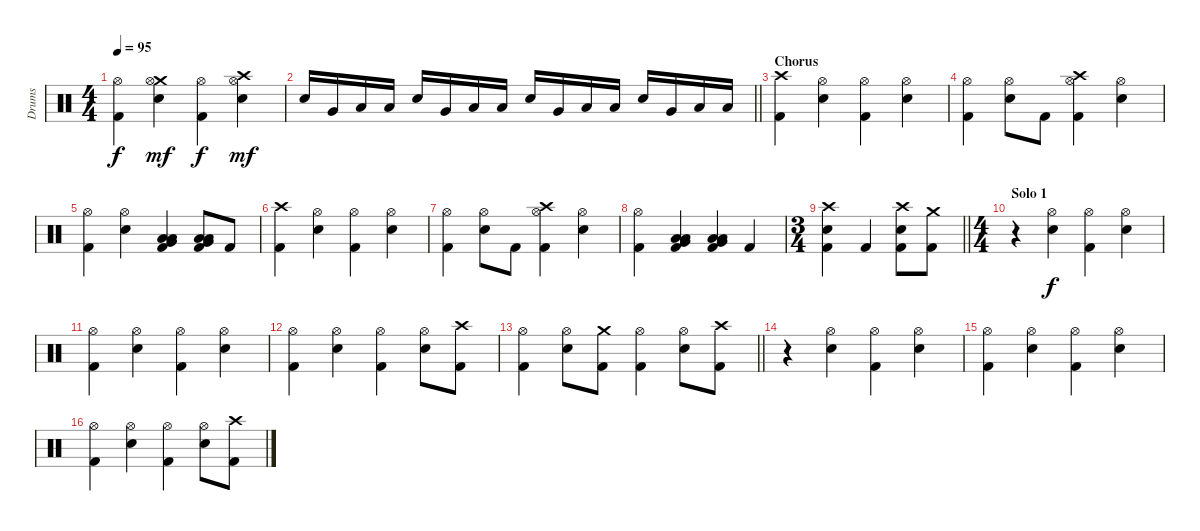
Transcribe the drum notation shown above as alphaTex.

\track ("Drums" "Drums") {instrument percussion}
\staff {score}
\articulation defaults
\ts (4 4)
\tempo 95
\clef neutral
\ks c
("Hi-Hat (open)" "Kick (hit) 2").4{dy f} ("Crash medium (hit)" "Hi-Hat (open)" "Electric Snare (hit)").4{dy mf} ("Hi-Hat (open)" "Kick (hit) 2").4{dy f} ("Crash high (hit)" "Hi-Hat (open)" "Electric Snare (hit)").4{dy mf} |
\barLineRight lightlight "Electric Snare (hit)".16 "Very Low Tom (hit)".16 "Low Floor Tom (hit)".16 "Low Tom (hit)".16 "Electric Snare (hit)".16 "Very Low Tom (hit)".16 "Low Floor Tom (hit)".16 "Low Tom (hit)".16 "Electric Snare (hit)".16 "Very Low Tom (hit)".16 "Low Floor Tom (hit)".16 "Low Tom (hit)".16 "Electric Snare (hit)".16 "Very Low Tom (hit)".16 "Low Floor Tom (hit)".16 "Low Tom (hit)".16
|
\section ("" "Chorus")
("Crash high (hit)" "Kick (hit) 2").4 ("Hi-Hat (open)" "Electric Snare (hit)").4 ("Hi-Hat (open)" "Kick (hit) 2").4 ("Hi-Hat (open)" "Electric Snare (hit)").4 |
("Hi-Hat (open)" "Kick (hit) 2").4 ("Hi-Hat (open)" "Electric Snare (hit)").8 "Kick (hit) 2".8 ("Crash high (hit)" "Hi-Hat (open)" "Kick (hit) 2").4 ("Hi-Hat (open)" "Electric Snare (hit)").4 |
("Hi-Hat (open)" "Kick (hit) 2").4 ("Hi-Hat (open)" "Electric Snare (hit)").4 ("Low Floor Tom (hit)" "Very Low Tom (hit)" "Low Tom (hit)" "Kick (hit) 2").4 ("Low Floor Tom (hit)" "Very Low Tom (hit)" "Low Tom (hit)" "Kick (hit) 2").8 "Kick (hit) 2".8 |
("Crash high (hit)" "Kick (hit) 2").4 ("Hi-Hat (open)" "Electric Snare (hit)").4 ("Hi-Hat (open)" "Kick (hit) 2").4 ("Hi-Hat (open)" "Electric Snare (hit)").4 |
("Hi-Hat (open)" "Kick (hit) 2").4 ("Hi-Hat (open)" "Electric Snare (hit)").8 "Kick (hit) 2".8 ("Crash high (hit)" "Hi-Hat (open)" "Kick (hit) 2").4 ("Hi-Hat (open)" "Electric Snare (hit)").4 |
("Hi-Hat (open)" "Kick (hit) 2").4 ("Low Floor Tom (hit)" "Very Low Tom (hit)" "Low Tom (hit)" "Kick (hit) 2").4 ("Low Floor Tom (hit)" "Very Low Tom (hit)" "Low Tom (hit)" "Kick (hit) 2").4 "Kick (hit) 2".4 |
\ts (3 4)
\barLineRight lightlight
("Crash high (hit)" "Electric Snare (hit)" "Kick (hit) 2").4 "Kick (hit) 2".4 ("Crash high (hit)" "Electric Snare (hit)" "Kick (hit) 2").8 ("Crash medium (hit)" "Kick (hit) 2").8 |
\ts (4 4)
\section ("" "Solo 1")
r.4 ("Hi-Hat (open)" "Electric Snare (hit)").4{dy f} ("Hi-Hat (open)" "Kick (hit) 2").4 ("Hi-Hat (open)" "Electric Snare (hit)").4 |
("Hi-Hat (open)" "Kick (hit) 2").4 ("Hi-Hat (open)" "Electric Snare (hit)").4 ("Hi-Hat (open)" "Kick (hit) 2").4 ("Hi-Hat (open)" "Electric Snare (hit)").4 |
("Hi-Hat (open)" "Kick (hit) 2").4 ("Hi-Hat (open)" "Electric Snare (hit)").4 ("Hi-Hat (open)" "Kick (hit) 2").4 ("Hi-Hat (open)" "Electric Snare (hit)").8 ("Crash high (hit)" "Kick (hit) 2").8 |
\barLineRight lightlight
("Hi-Hat (open)" "Kick (hit) 2").4 ("Hi-Hat (open)" "Electric Snare (hit)").8 ("Crash medium (hit)" "Kick (hit) 2").8 ("Hi-Hat (open)" "Kick (hit) 2").4 ("Hi-Hat (open)" "Electric Snare (hit)").8 ("Crash high (hit)" "Kick (hit) 2").8 |
r.4 ("Hi-Hat (open)" "Electric Snare (hit)").4 ("Hi-Hat (open)" "Kick (hit) 2").4 ("Hi-Hat (open)" "Electric Snare (hit)").4 |
("Hi-Hat (open)" "Kick (hit) 2").4 ("Hi-Hat (open)" "Electric Snare (hit)").4 ("Hi-Hat (open)" "Kick (hit) 2").4 ("Hi-Hat (open)" "Electric Snare (hit)").4 |
("Hi-Hat (open)" "Kick (hit) 2").4 ("Hi-Hat (open)" "Electric Snare (hit)").4 ("Hi-Hat (open)" "Kick (hit) 2").4 ("Hi-Hat (open)" "Electric Snare (hit)").8 ("Crash high (hit)" "Kick (hit) 2").8
